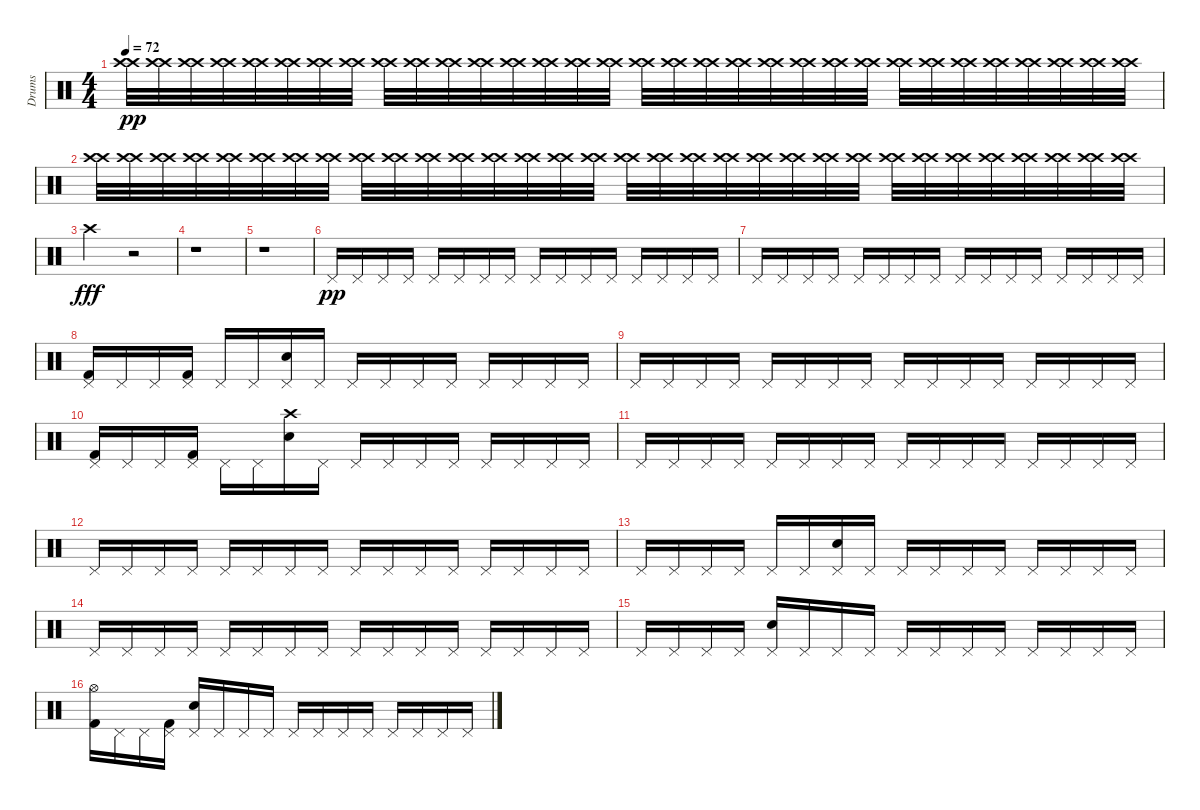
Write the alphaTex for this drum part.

\track ("Drums" "Drums") {instrument percussion}
\staff {score}
\articulation defaults
\ts (4 4)
\tempo 72
\clef neutral
\ks c
("Crash high (hit)" "Crash high (hit)").32{dy pp} ("Crash high (hit)" "Crash high (hit)").32 ("Crash high (hit)" "Crash high (hit)").32 ("Crash high (hit)" "Crash high (hit)").32 ("Crash high (hit)" "Crash high (hit)").32 ("Crash high (hit)" "Crash high (hit)").32 ("Crash high (hit)" "Crash high (hit)").32 ("Crash high (hit)" "Crash high (hit)").32 ("Crash high (hit)" "Crash high (hit)").32 ("Crash high (hit)" "Crash high (hit)").32 ("Crash high (hit)" "Crash high (hit)").32 ("Crash high (hit)" "Crash high (hit)").32 ("Crash high (hit)" "Crash high (hit)").32 ("Crash high (hit)" "Crash high (hit)").32 ("Crash high (hit)" "Crash high (hit)").32 ("Crash high (hit)" "Crash high (hit)").32 ("Crash high (hit)" "Crash high (hit)").32 ("Crash high (hit)" "Crash high (hit)").32 ("Crash high (hit)" "Crash high (hit)").32 ("Crash high (hit)" "Crash high (hit)").32 ("Crash high (hit)" "Crash high (hit)").32 ("Crash high (hit)" "Crash high (hit)").32 ("Crash high (hit)" "Crash high (hit)").32 ("Crash high (hit)" "Crash high (hit)").32 ("Crash high (hit)" "Crash high (hit)").32 ("Crash high (hit)" "Crash high (hit)").32 ("Crash high (hit)" "Crash high (hit)").32 ("Crash high (hit)" "Crash high (hit)").32 ("Crash high (hit)" "Crash high (hit)").32 ("Crash high (hit)" "Crash high (hit)").32 ("Crash high (hit)" "Crash high (hit)").32 ("Crash high (hit)" "Crash high (hit)").32 |
("Crash high (hit)" "Crash high (hit)").32 ("Crash high (hit)" "Crash high (hit)").32 ("Crash high (hit)" "Crash high (hit)").32 ("Crash high (hit)" "Crash high (hit)").32 ("Crash high (hit)" "Crash high (hit)").32 ("Crash high (hit)" "Crash high (hit)").32 ("Crash high (hit)" "Crash high (hit)").32 ("Crash high (hit)" "Crash high (hit)").32 ("Crash high (hit)" "Crash high (hit)").32 ("Crash high (hit)" "Crash high (hit)").32 ("Crash high (hit)" "Crash high (hit)").32 ("Crash high (hit)" "Crash high (hit)").32 ("Crash high (hit)" "Crash high (hit)").32 ("Crash high (hit)" "Crash high (hit)").32 ("Crash high (hit)" "Crash high (hit)").32 ("Crash high (hit)" "Crash high (hit)").32 ("Crash high (hit)" "Crash high (hit)").32 ("Crash high (hit)" "Crash high (hit)").32 ("Crash high (hit)" "Crash high (hit)").32 ("Crash high (hit)" "Crash high (hit)").32 ("Crash high (hit)" "Crash high (hit)").32 ("Crash high (hit)" "Crash high (hit)").32 ("Crash high (hit)" "Crash high (hit)").32 ("Crash high (hit)" "Crash high (hit)").32 ("Crash high (hit)" "Crash high (hit)").32 ("Crash high (hit)" "Crash high (hit)").32 ("Crash high (hit)" "Crash high (hit)").32 ("Crash high (hit)" "Crash high (hit)").32 ("Crash high (hit)" "Crash high (hit)").32 ("Crash high (hit)" "Crash high (hit)").32 ("Crash high (hit)" "Crash high (hit)").32 ("Crash high (hit)" "Crash high (hit)").32 |
"Crash high (hit)".2{dy fff} r.2 |
r.1 |
r.1 |
"Pedal Hi-Hat (hit)".16{dy pp} "Pedal Hi-Hat (hit)".16 "Pedal Hi-Hat (hit)".16 "Pedal Hi-Hat (hit)".16 "Pedal Hi-Hat (hit)".16 "Pedal Hi-Hat (hit)".16 "Pedal Hi-Hat (hit)".16 "Pedal Hi-Hat (hit)".16 "Pedal Hi-Hat (hit)".16 "Pedal Hi-Hat (hit)".16 "Pedal Hi-Hat (hit)".16 "Pedal Hi-Hat (hit)".16 "Pedal Hi-Hat (hit)".16 "Pedal Hi-Hat (hit)".16 "Pedal Hi-Hat (hit)".16 "Pedal Hi-Hat (hit)".16 |
"Pedal Hi-Hat (hit)".16 "Pedal Hi-Hat (hit)".16 "Pedal Hi-Hat (hit)".16 "Pedal Hi-Hat (hit)".16 "Pedal Hi-Hat (hit)".16 "Pedal Hi-Hat (hit)".16 "Pedal Hi-Hat (hit)".16 "Pedal Hi-Hat (hit)".16 "Pedal Hi-Hat (hit)".16 "Pedal Hi-Hat (hit)".16 "Pedal Hi-Hat (hit)".16 "Pedal Hi-Hat (hit)".16 "Pedal Hi-Hat (hit)".16 "Pedal Hi-Hat (hit)".16 "Pedal Hi-Hat (hit)".16 "Pedal Hi-Hat (hit)".16 |
("Kick (hit) 2" "Pedal Hi-Hat (hit)").16 "Pedal Hi-Hat (hit)".16 "Pedal Hi-Hat (hit)".16 ("Kick (hit) 2" "Pedal Hi-Hat (hit)").16 "Pedal Hi-Hat (hit)".16 "Pedal Hi-Hat (hit)".16 ("Snare (hit) 2" "Pedal Hi-Hat (hit)").16 "Pedal Hi-Hat (hit)".16 "Pedal Hi-Hat (hit)".16 "Pedal Hi-Hat (hit)".16 "Pedal Hi-Hat (hit)".16 "Pedal Hi-Hat (hit)".16 "Pedal Hi-Hat (hit)".16 "Pedal Hi-Hat (hit)".16 "Pedal Hi-Hat (hit)".16 "Pedal Hi-Hat (hit)".16 |
"Pedal Hi-Hat (hit)".16 "Pedal Hi-Hat (hit)".16 "Pedal Hi-Hat (hit)".16 "Pedal Hi-Hat (hit)".16 "Pedal Hi-Hat (hit)".16 "Pedal Hi-Hat (hit)".16 "Pedal Hi-Hat (hit)".16 "Pedal Hi-Hat (hit)".16 "Pedal Hi-Hat (hit)".16 "Pedal Hi-Hat (hit)".16 "Pedal Hi-Hat (hit)".16 "Pedal Hi-Hat (hit)".16 "Pedal Hi-Hat (hit)".16 "Pedal Hi-Hat (hit)".16 "Pedal Hi-Hat (hit)".16 "Pedal Hi-Hat (hit)".16 |
("Kick (hit) 2" "Pedal Hi-Hat (hit)").16 "Pedal Hi-Hat (hit)".16 "Pedal Hi-Hat (hit)".16 ("Kick (hit) 2" "Pedal Hi-Hat (hit)").16 "Pedal Hi-Hat (hit)".16 "Pedal Hi-Hat (hit)".16 ("Snare (hit) 2" "Crash high (hit)").16 "Pedal Hi-Hat (hit)".16 "Pedal Hi-Hat (hit)".16 "Pedal Hi-Hat (hit)".16 "Pedal Hi-Hat (hit)".16 "Pedal Hi-Hat (hit)".16 "Pedal Hi-Hat (hit)".16 "Pedal Hi-Hat (hit)".16 "Pedal Hi-Hat (hit)".16 "Pedal Hi-Hat (hit)".16 |
"Pedal Hi-Hat (hit)".16 "Pedal Hi-Hat (hit)".16 "Pedal Hi-Hat (hit)".16 "Pedal Hi-Hat (hit)".16 "Pedal Hi-Hat (hit)".16 "Pedal Hi-Hat (hit)".16 "Pedal Hi-Hat (hit)".16 "Pedal Hi-Hat (hit)".16 "Pedal Hi-Hat (hit)".16 "Pedal Hi-Hat (hit)".16 "Pedal Hi-Hat (hit)".16 "Pedal Hi-Hat (hit)".16 "Pedal Hi-Hat (hit)".16 "Pedal Hi-Hat (hit)".16 "Pedal Hi-Hat (hit)".16 "Pedal Hi-Hat (hit)".16 |
"Pedal Hi-Hat (hit)".16 "Pedal Hi-Hat (hit)".16 "Pedal Hi-Hat (hit)".16 "Pedal Hi-Hat (hit)".16 "Pedal Hi-Hat (hit)".16 "Pedal Hi-Hat (hit)".16 "Pedal Hi-Hat (hit)".16 "Pedal Hi-Hat (hit)".16 "Pedal Hi-Hat (hit)".16 "Pedal Hi-Hat (hit)".16 "Pedal Hi-Hat (hit)".16 "Pedal Hi-Hat (hit)".16 "Pedal Hi-Hat (hit)".16 "Pedal Hi-Hat (hit)".16 "Pedal Hi-Hat (hit)".16 "Pedal Hi-Hat (hit)".16 |
"Pedal Hi-Hat (hit)".16 "Pedal Hi-Hat (hit)".16 "Pedal Hi-Hat (hit)".16 "Pedal Hi-Hat (hit)".16 "Pedal Hi-Hat (hit)".16 "Pedal Hi-Hat (hit)".16 ("Snare (hit) 2" "Pedal Hi-Hat (hit)").16 "Pedal Hi-Hat (hit)".16 "Pedal Hi-Hat (hit)".16 "Pedal Hi-Hat (hit)".16 "Pedal Hi-Hat (hit)".16 "Pedal Hi-Hat (hit)".16 "Pedal Hi-Hat (hit)".16 "Pedal Hi-Hat (hit)".16 "Pedal Hi-Hat (hit)".16 "Pedal Hi-Hat (hit)".16 |
"Pedal Hi-Hat (hit)".16 "Pedal Hi-Hat (hit)".16 "Pedal Hi-Hat (hit)".16 "Pedal Hi-Hat (hit)".16 "Pedal Hi-Hat (hit)".16 "Pedal Hi-Hat (hit)".16 "Pedal Hi-Hat (hit)".16 "Pedal Hi-Hat (hit)".16 "Pedal Hi-Hat (hit)".16 "Pedal Hi-Hat (hit)".16 "Pedal Hi-Hat (hit)".16 "Pedal Hi-Hat (hit)".16 "Pedal Hi-Hat (hit)".16 "Pedal Hi-Hat (hit)".16 "Pedal Hi-Hat (hit)".16 "Pedal Hi-Hat (hit)".16 |
"Pedal Hi-Hat (hit)".16 "Pedal Hi-Hat (hit)".16 "Pedal Hi-Hat (hit)".16 "Pedal Hi-Hat (hit)".16 ("Snare (hit) 2" "Pedal Hi-Hat (hit)").16 "Pedal Hi-Hat (hit)".16 "Pedal Hi-Hat (hit)".16 "Pedal Hi-Hat (hit)".16 "Pedal Hi-Hat (hit)".16 "Pedal Hi-Hat (hit)".16 "Pedal Hi-Hat (hit)".16 "Pedal Hi-Hat (hit)".16 "Pedal Hi-Hat (hit)".16 "Pedal Hi-Hat (hit)".16 "Pedal Hi-Hat (hit)".16 "Pedal Hi-Hat (hit)".16 |
("Kick (hit) 2" "Hi-Hat (open)").16 "Pedal Hi-Hat (hit)".16 "Pedal Hi-Hat (hit)".16 ("Kick (hit) 2" "Pedal Hi-Hat (hit)").16 ("Snare (hit) 2" "Pedal Hi-Hat (hit)").16 "Pedal Hi-Hat (hit)".16 "Pedal Hi-Hat (hit)".16 "Pedal Hi-Hat (hit)".16 "Pedal Hi-Hat (hit)".16 "Pedal Hi-Hat (hit)".16 "Pedal Hi-Hat (hit)".16 "Pedal Hi-Hat (hit)".16 "Pedal Hi-Hat (hit)".16 "Pedal Hi-Hat (hit)".16 "Pedal Hi-Hat (hit)".16 "Pedal Hi-Hat (hit)".16
